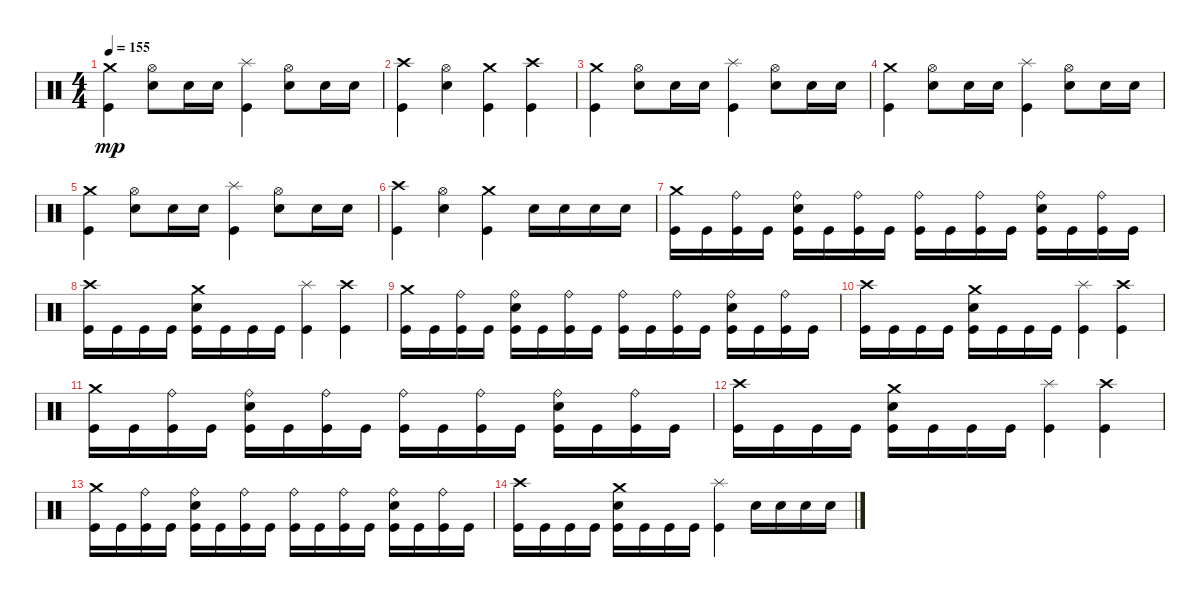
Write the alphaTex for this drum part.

\track "" {instrument percussion}
\staff {score}
\articulation defaults
\ts (4 4)
\tempo 155
\clef neutral
\ks c
("Crash medium (hit)" "Kick (hit)").4{dy mp} ("Snare (hit) 2" "Hi-Hat (open)").8 "Snare (hit) 2".16 "Snare (hit) 2".16 ("Splash (hit)" "Kick (hit)").4 ("Snare (hit) 2" "Hi-Hat (open)").8 "Snare (hit) 2".16 "Snare (hit) 2".16 |
("Crash high (hit)" "Kick (hit)").4 ("Snare (hit) 2" "Hi-Hat (open)").4 ("Kick (hit)" "Crash medium (hit)").4 ("Kick (hit)" "Crash high (hit)").4 |
("Crash medium (hit)" "Kick (hit)").4 ("Snare (hit) 2" "Hi-Hat (open)").8 "Snare (hit) 2".16 "Snare (hit) 2".16 ("Splash (hit)" "Kick (hit)").4 ("Snare (hit) 2" "Hi-Hat (open)").8 "Snare (hit) 2".16 "Snare (hit) 2".16 |
("Crash medium (hit)" "Kick (hit)").4 ("Snare (hit) 2" "Hi-Hat (open)").8 "Snare (hit) 2".16 "Snare (hit) 2".16 ("Splash (hit)" "Kick (hit)").4 ("Snare (hit) 2" "Hi-Hat (open)").8 "Snare (hit) 2".16 "Snare (hit) 2".16 |
("Crash medium (hit)" "Kick (hit)").4 ("Snare (hit) 2" "Hi-Hat (open)").8 "Snare (hit) 2".16 "Snare (hit) 2".16 ("Splash (hit)" "Kick (hit)").4 ("Snare (hit) 2" "Hi-Hat (open)").8 "Snare (hit) 2".16 "Snare (hit) 2".16 |
("Crash high (hit)" "Kick (hit)").4 ("Snare (hit) 2" "Hi-Hat (open)").4 ("Kick (hit)" "Crash medium (hit)").4 "Snare (hit) 2".16 "Snare (hit) 2".16 "Snare (hit) 2".16 "Snare (hit) 2".16 |
("Kick (hit)" "Crash medium (hit)").16 "Kick (hit)".16 ("Kick (hit)" "Ride (bell)").16 "Kick (hit)".16 ("Kick (hit)" "Snare (hit) 2" "Ride (bell)").16 "Kick (hit)".16 ("Kick (hit)" "Ride (bell)").16 "Kick (hit)".16 ("Kick (hit)" "Ride (bell)").16 "Kick (hit)".16 ("Kick (hit)" "Ride (bell)").16 "Kick (hit)".16 ("Kick (hit)" "Snare (hit) 2" "Ride (bell)").16 "Kick (hit)".16 ("Kick (hit)" "Ride (bell)").16 "Kick (hit)".16 |
("Kick (hit)" "Crash high (hit)").16 "Kick (hit)".16 "Kick (hit)".16 "Kick (hit)".16 ("Kick (hit)" "Snare (hit) 2" "Crash medium (hit)").16 "Kick (hit)".16 "Kick (hit)".16 "Kick (hit)".16 ("Kick (hit)" "Splash (hit)").4 ("Kick (hit)" "Crash high (hit)").4 |
("Kick (hit)" "Crash medium (hit)").16 "Kick (hit)".16 ("Kick (hit)" "Ride (bell)").16 "Kick (hit)".16 ("Kick (hit)" "Snare (hit) 2" "Ride (bell)").16 "Kick (hit)".16 ("Kick (hit)" "Ride (bell)").16 "Kick (hit)".16 ("Kick (hit)" "Ride (bell)").16 "Kick (hit)".16 ("Kick (hit)" "Ride (bell)").16 "Kick (hit)".16 ("Kick (hit)" "Snare (hit) 2" "Ride (bell)").16 "Kick (hit)".16 ("Kick (hit)" "Ride (bell)").16 "Kick (hit)".16 |
("Kick (hit)" "Crash high (hit)").16 "Kick (hit)".16 "Kick (hit)".16 "Kick (hit)".16 ("Kick (hit)" "Snare (hit) 2" "Crash medium (hit)").16 "Kick (hit)".16 "Kick (hit)".16 "Kick (hit)".16 ("Kick (hit)" "Splash (hit)").4 ("Kick (hit)" "Crash high (hit)").4 |
("Kick (hit)" "Crash medium (hit)").16 "Kick (hit)".16 ("Kick (hit)" "Ride (bell)").16 "Kick (hit)".16 ("Kick (hit)" "Snare (hit) 2" "Ride (bell)").16 "Kick (hit)".16 ("Kick (hit)" "Ride (bell)").16 "Kick (hit)".16 ("Kick (hit)" "Ride (bell)").16 "Kick (hit)".16 ("Kick (hit)" "Ride (bell)").16 "Kick (hit)".16 ("Kick (hit)" "Snare (hit) 2" "Ride (bell)").16 "Kick (hit)".16 ("Kick (hit)" "Ride (bell)").16 "Kick (hit)".16 |
("Kick (hit)" "Crash high (hit)").16 "Kick (hit)".16 "Kick (hit)".16 "Kick (hit)".16 ("Kick (hit)" "Snare (hit) 2" "Crash medium (hit)").16 "Kick (hit)".16 "Kick (hit)".16 "Kick (hit)".16 ("Kick (hit)" "Splash (hit)").4 ("Kick (hit)" "Crash high (hit)").4 |
("Kick (hit)" "Crash medium (hit)").16 "Kick (hit)".16 ("Kick (hit)" "Ride (bell)").16 "Kick (hit)".16 ("Kick (hit)" "Snare (hit) 2" "Ride (bell)").16 "Kick (hit)".16 ("Kick (hit)" "Ride (bell)").16 "Kick (hit)".16 ("Kick (hit)" "Ride (bell)").16 "Kick (hit)".16 ("Kick (hit)" "Ride (bell)").16 "Kick (hit)".16 ("Kick (hit)" "Snare (hit) 2" "Ride (bell)").16 "Kick (hit)".16 ("Kick (hit)" "Ride (bell)").16 "Kick (hit)".16 |
("Kick (hit)" "Crash high (hit)").16 "Kick (hit)".16 "Kick (hit)".16 "Kick (hit)".16 ("Kick (hit)" "Snare (hit) 2" "Crash medium (hit)").16 "Kick (hit)".16 "Kick (hit)".16 "Kick (hit)".16 ("Kick (hit)" "Splash (hit)").4 "Snare (hit) 2".16 "Snare (hit) 2".16 "Snare (hit) 2".16 "Snare (hit) 2".16
